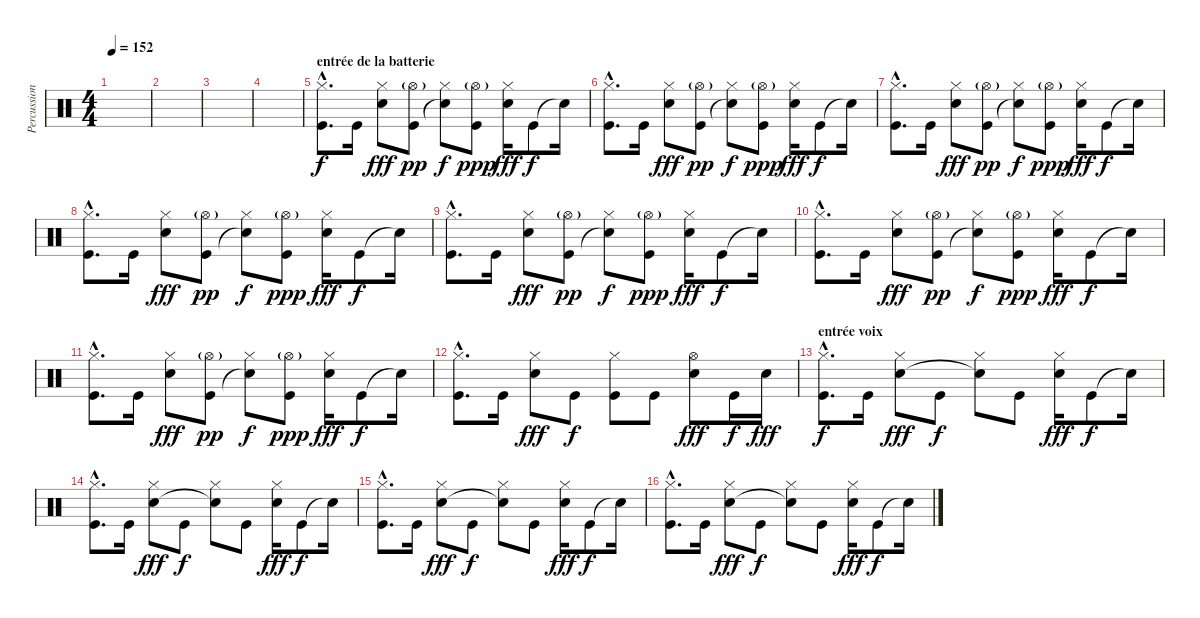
\track ("Percussions" "Percussion") {instrument percussion}
\staff {score}
\articulation defaults
\ts (4 4)
\tempo 152
\clef neutral
\ks c
|
|
|
|
\section ("" "entrée de la batterie")
("Hi-Hat (closed)"{hac} "Kick (hit)"{hac}).8{d} "Kick (hit)".16 ("Hi-Hat (closed)" "Snare (hit) 2").8{dy fff} ("Hi-Hat (open)"{g} "Kick (hit)").8{dy pp} ("Hi-Hat (closed)" "Snare (hit)"{t}).8{dy f} ("Hi-Hat (open)"{g} "Kick (hit)").8{dy ppp} ("Hi-Hat (closed)" "Snare (hit) 2").16{dy fff} "Kick (hit)".8{dy f} "Snare (hit)"{t}.16 |
("Hi-Hat (closed)"{hac} "Kick (hit)"{hac}).8{d} "Kick (hit)".16 ("Hi-Hat (closed)" "Snare (hit) 2").8{dy fff} ("Hi-Hat (open)"{g} "Kick (hit)").8{dy pp} ("Hi-Hat (closed)" "Snare (hit)"{t}).8{dy f} ("Hi-Hat (open)"{g} "Kick (hit)").8{dy ppp} ("Hi-Hat (closed)" "Snare (hit) 2").16{dy fff} "Kick (hit)".8{dy f} "Snare (hit)"{t}.16 |
("Hi-Hat (closed)"{hac} "Kick (hit)"{hac}).8{d} "Kick (hit)".16 ("Hi-Hat (closed)" "Snare (hit) 2").8{dy fff} ("Hi-Hat (open)"{g} "Kick (hit)").8{dy pp} ("Hi-Hat (closed)" "Snare (hit)"{t}).8{dy f} ("Hi-Hat (open)"{g} "Kick (hit)").8{dy ppp} ("Hi-Hat (closed)" "Snare (hit) 2").16{dy fff} "Kick (hit)".8{dy f} "Snare (hit)"{t}.16 |
("Hi-Hat (closed)"{hac} "Kick (hit)"{hac}).8{d} "Kick (hit)".16 ("Hi-Hat (closed)" "Snare (hit) 2").8{dy fff} ("Hi-Hat (open)"{g} "Kick (hit)").8{dy pp} ("Hi-Hat (closed)" "Snare (hit)"{t}).8{dy f} ("Hi-Hat (open)"{g} "Kick (hit)").8{dy ppp} ("Hi-Hat (closed)" "Snare (hit) 2").16{dy fff} "Kick (hit)".8{dy f} "Snare (hit)"{t}.16 |
("Hi-Hat (closed)"{hac} "Kick (hit)"{hac}).8{d} "Kick (hit)".16 ("Hi-Hat (closed)" "Snare (hit) 2").8{dy fff} ("Hi-Hat (open)"{g} "Kick (hit)").8{dy pp} ("Hi-Hat (closed)" "Snare (hit)"{t}).8{dy f} ("Hi-Hat (open)"{g} "Kick (hit)").8{dy ppp} ("Hi-Hat (closed)" "Snare (hit) 2").16{dy fff} "Kick (hit)".8{dy f} "Snare (hit)"{t}.16 |
("Hi-Hat (closed)"{hac} "Kick (hit)"{hac}).8{d} "Kick (hit)".16 ("Hi-Hat (closed)" "Snare (hit) 2").8{dy fff} ("Hi-Hat (open)"{g} "Kick (hit)").8{dy pp} ("Hi-Hat (closed)" "Snare (hit)"{t}).8{dy f} ("Hi-Hat (open)"{g} "Kick (hit)").8{dy ppp} ("Hi-Hat (closed)" "Snare (hit) 2").16{dy fff} "Kick (hit)".8{dy f} "Snare (hit)"{t}.16 |
("Hi-Hat (closed)"{hac} "Kick (hit)"{hac}).8{d} "Kick (hit)".16 ("Hi-Hat (closed)" "Snare (hit) 2").8{dy fff} ("Hi-Hat (open)"{g} "Kick (hit)").8{dy pp} ("Hi-Hat (closed)" "Snare (hit)"{t}).8{dy f} ("Hi-Hat (open)"{g} "Kick (hit)").8{dy ppp} ("Hi-Hat (closed)" "Snare (hit) 2").16{dy fff} "Kick (hit)".8{dy f} "Snare (hit)"{t}.16 |
("Hi-Hat (closed)"{hac} "Kick (hit)"{hac}).8{d} "Kick (hit)".16 ("Hi-Hat (closed)" "Snare (hit) 2").8{dy fff} "Kick (hit)".8{dy f} ("Hi-Hat (closed)" "Kick (hit)").8 "Kick (hit)".8 ("Hi-Hat (open)" "Snare (hit) 2").8{dy fff} "Kick (hit)".16{dy f} "Snare (hit) 2".16{dy fff} |
\section ("" "entrée voix")
("Hi-Hat (closed)"{hac} "Kick (hit)"{hac}).8{d dy f} "Kick (hit)".16 ("Hi-Hat (closed)" "Snare (hit) 2").8{dy fff} "Kick (hit)".8{dy f} ("Hi-Hat (closed)" "Snare (hit)"{t}).8 "Kick (hit)".8 ("Hi-Hat (closed)" "Snare (hit) 2").16{dy fff} "Kick (hit)".8{dy f} "Snare (hit)"{t}.16 |
("Hi-Hat (closed)"{hac} "Kick (hit)"{hac}).8{d} "Kick (hit)".16 ("Hi-Hat (closed)" "Snare (hit) 2").8{dy fff} "Kick (hit)".8{dy f} ("Hi-Hat (closed)" "Snare (hit)"{t}).8 "Kick (hit)".8 ("Hi-Hat (closed)" "Snare (hit) 2").16{dy fff} "Kick (hit)".8{dy f} "Snare (hit)"{t}.16 |
("Hi-Hat (closed)"{hac} "Kick (hit)"{hac}).8{d} "Kick (hit)".16 ("Hi-Hat (closed)" "Snare (hit) 2").8{dy fff} "Kick (hit)".8{dy f} ("Hi-Hat (closed)" "Snare (hit)"{t}).8 "Kick (hit)".8 ("Hi-Hat (closed)" "Snare (hit) 2").16{dy fff} "Kick (hit)".8{dy f} "Snare (hit)"{t}.16 |
("Hi-Hat (closed)"{hac} "Kick (hit)"{hac}).8{d} "Kick (hit)".16 ("Hi-Hat (closed)" "Snare (hit) 2").8{dy fff} "Kick (hit)".8{dy f} ("Hi-Hat (closed)" "Snare (hit)"{t}).8 "Kick (hit)".8 ("Hi-Hat (closed)" "Snare (hit) 2").16{dy fff} "Kick (hit)".8{dy f} "Snare (hit)"{t}.16
